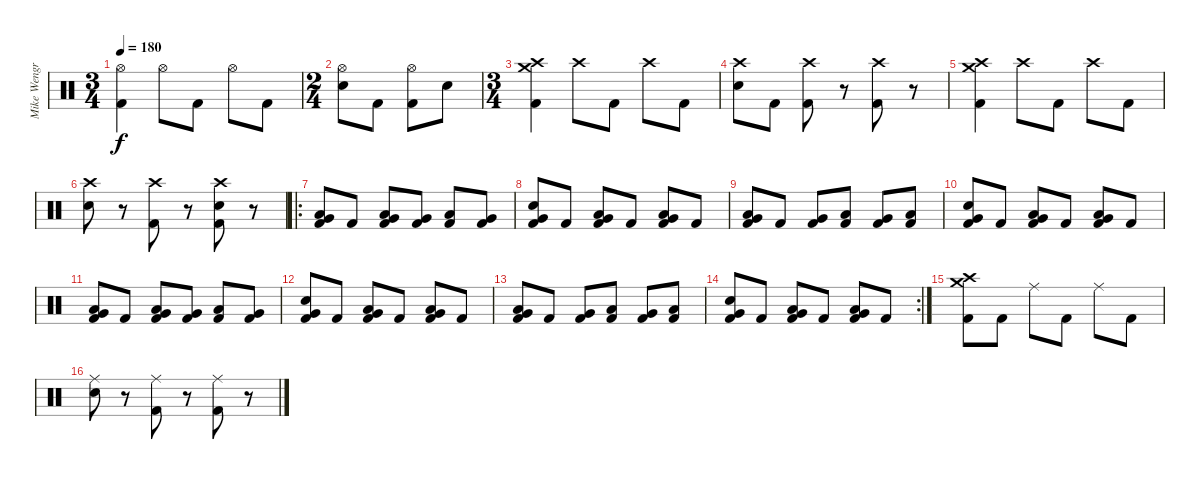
\track ("Mike Wengren" "Mike Wengr") {instrument percussion}
\staff {score}
\articulation defaults
\ts (3 4)
\tempo 180
\clef neutral
\ks c
("Hi-Hat (open)" "Kick (hit) 2").4{dy f} "Hi-Hat (open)".8 "Kick (hit) 2".8 "Hi-Hat (open)".8 "Kick (hit) 2".8 |
\ts (2 4)
("Hi-Hat (open)" "Snare (hit) 2").8 "Kick (hit) 2".8 ("Hi-Hat (open)" "Kick (hit) 2").8 "Snare (hit) 2".8 |
\ts (3 4)
("Crash medium (hit)" "Crash high (hit)" "Kick (hit) 2").4 "Crash high (hit)".8 "Kick (hit) 2".8 "Crash high (hit)".8 "Kick (hit) 2".8 |
("Crash high (hit)" "Snare (hit) 2").8 "Kick (hit) 2".8 ("Crash high (hit)" "Kick (hit) 2").8 r.8 ("Crash high (hit)" "Kick (hit) 2").8 r.8 |
("Crash medium (hit)" "Crash high (hit)" "Kick (hit) 2").4 "Crash high (hit)".8 "Kick (hit) 2".8 "Crash high (hit)".8 "Kick (hit) 2".8 |
("Crash high (hit)" "Snare (hit) 2").8 r.8 ("Crash high (hit)" "Kick (hit) 2").8 r.8 ("Crash high (hit)" "Snare (hit) 2" "Kick (hit) 2").8 r.8 |
\ro
("Very Low Tom (hit)" "Low Floor Tom (hit)" "Kick (hit) 2").8 "Kick (hit) 2".8 ("Very Low Tom (hit)" "Low Floor Tom (hit)" "Kick (hit) 2").8 ("Very Low Tom (hit)" "Kick (hit) 2").8 ("Low Floor Tom (hit)" "Kick (hit) 2").8 ("Very Low Tom (hit)" "Kick (hit) 2").8 |
("Very Low Tom (hit)" "Snare (hit) 2" "Kick (hit) 2").8 "Kick (hit) 2".8 ("Very Low Tom (hit)" "Low Floor Tom (hit)" "Kick (hit) 2").8 "Kick (hit) 2".8 ("Very Low Tom (hit)" "Low Floor Tom (hit)" "Kick (hit) 2").8 "Kick (hit) 2".8 |
("Very Low Tom (hit)" "Low Floor Tom (hit)" "Kick (hit) 2").8 "Kick (hit) 2".8 ("Very Low Tom (hit)" "Kick (hit) 2").8 ("Low Floor Tom (hit)" "Kick (hit) 2").8 ("Very Low Tom (hit)" "Kick (hit) 2").8 ("Low Floor Tom (hit)" "Kick (hit) 2").8 |
("Very Low Tom (hit)" "Snare (hit) 2" "Kick (hit) 2").8 "Kick (hit) 2".8 ("Very Low Tom (hit)" "Low Floor Tom (hit)" "Kick (hit) 2").8 "Kick (hit) 2".8 ("Very Low Tom (hit)" "Low Floor Tom (hit)" "Kick (hit) 2").8 "Kick (hit) 2".8 |
("Very Low Tom (hit)" "Low Floor Tom (hit)" "Kick (hit) 2").8 "Kick (hit) 2".8 ("Very Low Tom (hit)" "Low Floor Tom (hit)" "Kick (hit) 2").8 ("Very Low Tom (hit)" "Kick (hit) 2").8 ("Low Floor Tom (hit)" "Kick (hit) 2").8 ("Very Low Tom (hit)" "Kick (hit) 2").8 |
("Very Low Tom (hit)" "Snare (hit) 2" "Kick (hit) 2").8 "Kick (hit) 2".8 ("Very Low Tom (hit)" "Low Floor Tom (hit)" "Kick (hit) 2").8 "Kick (hit) 2".8 ("Very Low Tom (hit)" "Low Floor Tom (hit)" "Kick (hit) 2").8 "Kick (hit) 2".8 |
("Very Low Tom (hit)" "Low Floor Tom (hit)" "Kick (hit) 2").8 "Kick (hit) 2".8 ("Very Low Tom (hit)" "Kick (hit) 2").8 ("Low Floor Tom (hit)" "Kick (hit) 2").8 ("Very Low Tom (hit)" "Kick (hit) 2").8 ("Low Floor Tom (hit)" "Kick (hit) 2").8 |
\rc 2
("Very Low Tom (hit)" "Snare (hit) 2" "Kick (hit) 2").8 "Kick (hit) 2".8 ("Very Low Tom (hit)" "Low Floor Tom (hit)" "Kick (hit) 2").8 "Kick (hit) 2".8 ("Very Low Tom (hit)" "Low Floor Tom (hit)" "Kick (hit) 2").8 "Kick (hit) 2".8 |
("Crash medium (hit)" "Crash high (hit)" "Kick (hit) 2").8 "Kick (hit) 2".8 "Ride (middle)".8 "Kick (hit) 2".8 "Ride (middle)".8 "Kick (hit) 2".8 |
("Ride (middle)" "Snare (hit) 2").8 r.8 ("Ride (middle)" "Kick (hit) 2").8 r.8 ("Ride (middle)" "Kick (hit) 2").8 r.8
